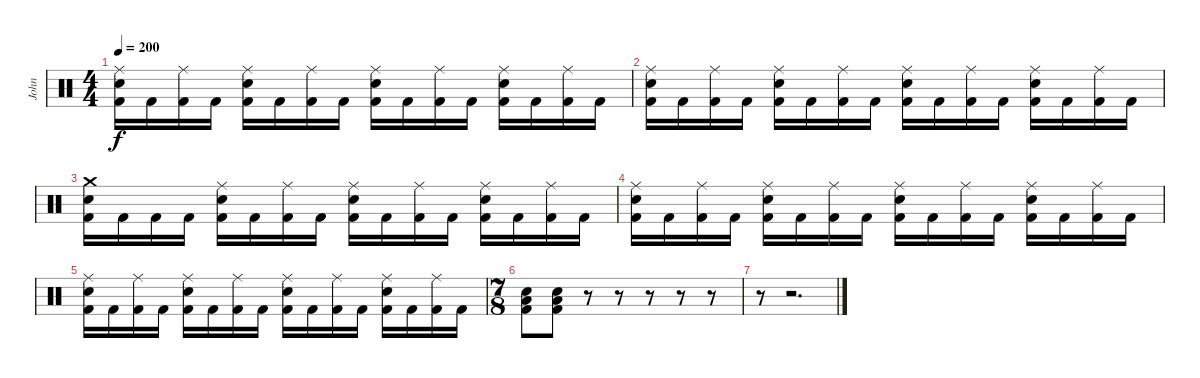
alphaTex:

\track ("John" "John") {instrument percussion}
\staff {score}
\articulation defaults
\ts (4 4)
\tempo 200
\clef neutral
\ks c
("Ride (middle)" "Electric Snare (hit)" "Kick (hit) 2").16{dy f} "Kick (hit) 2".16 ("Ride (middle)" "Kick (hit) 2").16 "Kick (hit) 2".16 ("Ride (middle)" "Electric Snare (hit)" "Kick (hit) 2").16 "Kick (hit) 2".16 ("Ride (middle)" "Kick (hit) 2").16 "Kick (hit) 2".16 ("Ride (middle)" "Electric Snare (hit)" "Kick (hit) 2").16 "Kick (hit) 2".16 ("Ride (middle)" "Kick (hit) 2").16 "Kick (hit) 2".16 ("Ride (middle)" "Electric Snare (hit)" "Kick (hit) 2").16 "Kick (hit) 2".16 ("Ride (middle)" "Kick (hit) 2").16 "Kick (hit) 2".16 |
("Ride (middle)" "Electric Snare (hit)" "Kick (hit) 2").16 "Kick (hit) 2".16 ("Ride (middle)" "Kick (hit) 2").16 "Kick (hit) 2".16 ("Ride (middle)" "Electric Snare (hit)" "Kick (hit) 2").16 "Kick (hit) 2".16 ("Ride (middle)" "Kick (hit) 2").16 "Kick (hit) 2".16 ("Ride (middle)" "Electric Snare (hit)" "Kick (hit) 2").16 "Kick (hit) 2".16 ("Ride (middle)" "Kick (hit) 2").16 "Kick (hit) 2".16 ("Ride (middle)" "Electric Snare (hit)" "Kick (hit) 2").16 "Kick (hit) 2".16 ("Ride (middle)" "Kick (hit) 2").16 "Kick (hit) 2".16 |
("Crash medium (hit)" "Electric Snare (hit)" "Kick (hit) 2").16 "Kick (hit) 2".16 "Kick (hit) 2".16 "Kick (hit) 2".16 ("Ride (middle)" "Electric Snare (hit)" "Kick (hit) 2").16 "Kick (hit) 2".16 ("Ride (middle)" "Kick (hit) 2").16 "Kick (hit) 2".16 ("Ride (middle)" "Electric Snare (hit)" "Kick (hit) 2").16 "Kick (hit) 2".16 ("Ride (middle)" "Kick (hit) 2").16 "Kick (hit) 2".16 ("Ride (middle)" "Electric Snare (hit)" "Kick (hit) 2").16 "Kick (hit) 2".16 ("Ride (middle)" "Kick (hit) 2").16 "Kick (hit) 2".16 |
("Ride (middle)" "Electric Snare (hit)" "Kick (hit) 2").16 "Kick (hit) 2".16 ("Ride (middle)" "Kick (hit) 2").16 "Kick (hit) 2".16 ("Ride (middle)" "Electric Snare (hit)" "Kick (hit) 2").16 "Kick (hit) 2".16 ("Ride (middle)" "Kick (hit) 2").16 "Kick (hit) 2".16 ("Ride (middle)" "Electric Snare (hit)" "Kick (hit) 2").16 "Kick (hit) 2".16 ("Ride (middle)" "Kick (hit) 2").16 "Kick (hit) 2".16 ("Ride (middle)" "Electric Snare (hit)" "Kick (hit) 2").16 "Kick (hit) 2".16 ("Ride (middle)" "Kick (hit) 2").16 "Kick (hit) 2".16 |
("Ride (middle)" "Electric Snare (hit)" "Kick (hit) 2").16 "Kick (hit) 2".16 ("Ride (middle)" "Kick (hit) 2").16 "Kick (hit) 2".16 ("Ride (middle)" "Electric Snare (hit)" "Kick (hit) 2").16 "Kick (hit) 2".16 ("Ride (middle)" "Kick (hit) 2").16 "Kick (hit) 2".16 ("Ride (middle)" "Electric Snare (hit)" "Kick (hit) 2").16 "Kick (hit) 2".16 ("Ride (middle)" "Kick (hit) 2").16 "Kick (hit) 2".16 ("Ride (middle)" "Electric Snare (hit)" "Kick (hit) 2").16 "Kick (hit) 2".16 ("Ride (middle)" "Kick (hit) 2").16 "Kick (hit) 2".16 |
\ts (7 8)
("Low Floor Tom (hit)" "Electric Snare (hit)" "Kick (hit) 2").8 ("Low Floor Tom (hit)" "Electric Snare (hit)" "Kick (hit) 2").8 r.8 r.8 r.8 r.8 r.8 |
r.8 r.2{d}
